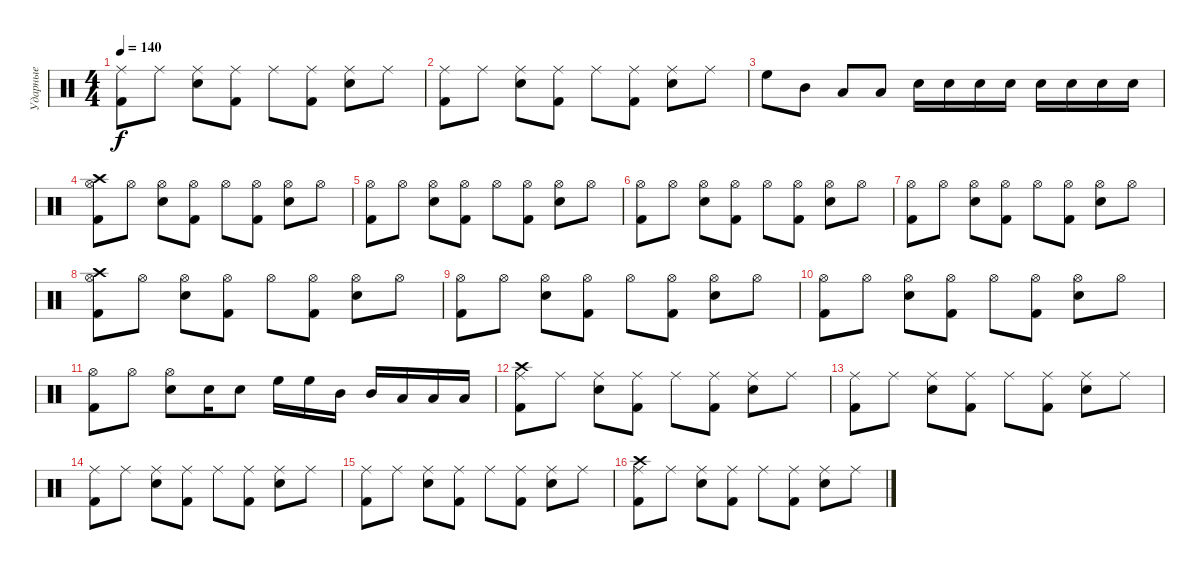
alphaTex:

\track ("Ударные" "Ударные") {instrument percussion}
\staff {score}
\articulation defaults
\ts (4 4)
\tempo 140
\clef neutral
\ks c
("Ride (middle)" "Kick (hit) 2").8{dy f} "Ride (middle)".8 ("Ride (middle)" "Snare (hit) 2").8 ("Ride (middle)" "Kick (hit) 2").8 "Ride (middle)".8 ("Ride (middle)" "Kick (hit) 2").8 ("Ride (middle)" "Snare (hit) 2").8 "Ride (middle)".8 |
("Ride (middle)" "Kick (hit) 2").8 "Ride (middle)".8 ("Ride (middle)" "Snare (hit) 2").8 ("Ride (middle)" "Kick (hit) 2").8 "Ride (middle)".8 ("Ride (middle)" "Kick (hit) 2").8 ("Ride (middle)" "Snare (hit) 2").8 "Ride (middle)".8 |
"High Floor Tom (hit)".8 "Mid Tom (hit)".8 "Low Tom (hit)".8 "Low Floor Tom (hit)".8 "Snare (hit) 2".16 "Snare (hit) 2".16 "Snare (hit) 2".16 "Snare (hit) 2".16 "Snare (hit) 2".16 "Snare (hit) 2".16 "Snare (hit) 2".16 "Snare (hit) 2".16 |
("Hi-Hat (open)" "Crash high (hit)" "Kick (hit) 2").8 "Hi-Hat (open)".8 ("Hi-Hat (open)" "Snare (hit) 2").8 ("Hi-Hat (open)" "Kick (hit) 2").8 "Hi-Hat (open)".8 ("Hi-Hat (open)" "Kick (hit) 2").8 ("Hi-Hat (open)" "Snare (hit) 2").8 "Hi-Hat (open)".8 |
("Hi-Hat (open)" "Kick (hit) 2").8 "Hi-Hat (open)".8 ("Hi-Hat (open)" "Snare (hit) 2").8 ("Hi-Hat (open)" "Kick (hit) 2").8 "Hi-Hat (open)".8 ("Hi-Hat (open)" "Kick (hit) 2").8 ("Hi-Hat (open)" "Snare (hit) 2").8 "Hi-Hat (open)".8 |
("Hi-Hat (open)" "Kick (hit) 2").8 "Hi-Hat (open)".8 ("Hi-Hat (open)" "Snare (hit) 2").8 ("Hi-Hat (open)" "Kick (hit) 2").8 "Hi-Hat (open)".8 ("Hi-Hat (open)" "Kick (hit) 2").8 ("Hi-Hat (open)" "Snare (hit) 2").8 "Hi-Hat (open)".8 |
("Hi-Hat (open)" "Kick (hit) 2").8 "Hi-Hat (open)".8 ("Hi-Hat (open)" "Snare (hit) 2").8 ("Hi-Hat (open)" "Kick (hit) 2").8 "Hi-Hat (open)".8 ("Hi-Hat (open)" "Kick (hit) 2").8 ("Hi-Hat (open)" "Snare (hit) 2").8 "Hi-Hat (open)".8 |
("Hi-Hat (open)" "Crash high (hit)" "Kick (hit) 2").8 "Hi-Hat (open)".8 ("Hi-Hat (open)" "Snare (hit) 2").8 ("Hi-Hat (open)" "Kick (hit) 2").8 "Hi-Hat (open)".8 ("Hi-Hat (open)" "Kick (hit) 2").8 ("Hi-Hat (open)" "Snare (hit) 2").8 "Hi-Hat (open)".8 |
("Hi-Hat (open)" "Kick (hit) 2").8 "Hi-Hat (open)".8 ("Hi-Hat (open)" "Snare (hit) 2").8 ("Hi-Hat (open)" "Kick (hit) 2").8 "Hi-Hat (open)".8 ("Hi-Hat (open)" "Kick (hit) 2").8 ("Hi-Hat (open)" "Snare (hit) 2").8 "Hi-Hat (open)".8 |
("Hi-Hat (open)" "Kick (hit) 2").8 "Hi-Hat (open)".8 ("Hi-Hat (open)" "Snare (hit) 2").8 ("Hi-Hat (open)" "Kick (hit) 2").8 "Hi-Hat (open)".8 ("Hi-Hat (open)" "Kick (hit) 2").8 ("Hi-Hat (open)" "Snare (hit) 2").8 "Hi-Hat (open)".8 |
("Hi-Hat (open)" "Kick (hit) 2").8 "Hi-Hat (open)".8 ("Hi-Hat (open)" "Snare (hit) 2").8 "Snare (hit) 2".16 "Snare (hit) 2".8 "High Floor Tom (hit)".16 "High Floor Tom (hit)".16 "Mid Tom (hit)".16 "Mid Tom (hit)".16 "Low Tom (hit)".16 "Low Tom (hit)".16 "Low Tom (hit)".16 |
("Ride (middle)" "Crash high (hit)" "Kick (hit) 2").8 "Ride (middle)".8 ("Ride (middle)" "Snare (hit) 2").8 ("Ride (middle)" "Kick (hit) 2").8 "Ride (middle)".8 ("Ride (middle)" "Kick (hit) 2").8 ("Ride (middle)" "Snare (hit) 2").8 "Ride (middle)".8 |
("Ride (middle)" "Kick (hit) 2").8 "Ride (middle)".8 ("Ride (middle)" "Snare (hit) 2").8 ("Ride (middle)" "Kick (hit) 2").8 "Ride (middle)".8 ("Ride (middle)" "Kick (hit) 2").8 ("Ride (middle)" "Snare (hit) 2").8 "Ride (middle)".8 |
("Ride (middle)" "Kick (hit) 2").8 "Ride (middle)".8 ("Ride (middle)" "Snare (hit) 2").8 ("Ride (middle)" "Kick (hit) 2").8 "Ride (middle)".8 ("Ride (middle)" "Kick (hit) 2").8 ("Ride (middle)" "Snare (hit) 2").8 "Ride (middle)".8 |
("Ride (middle)" "Kick (hit) 2").8 "Ride (middle)".8 ("Ride (middle)" "Snare (hit) 2").8 ("Ride (middle)" "Kick (hit) 2").8 "Ride (middle)".8 ("Ride (middle)" "Kick (hit) 2").8 ("Ride (middle)" "Snare (hit) 2").8 "Ride (middle)".8 |
("Ride (middle)" "Crash high (hit)" "Kick (hit) 2").8 "Ride (middle)".8 ("Ride (middle)" "Snare (hit) 2").8 ("Ride (middle)" "Kick (hit) 2").8 "Ride (middle)".8 ("Ride (middle)" "Kick (hit) 2").8 ("Ride (middle)" "Snare (hit) 2").8 "Ride (middle)".8
